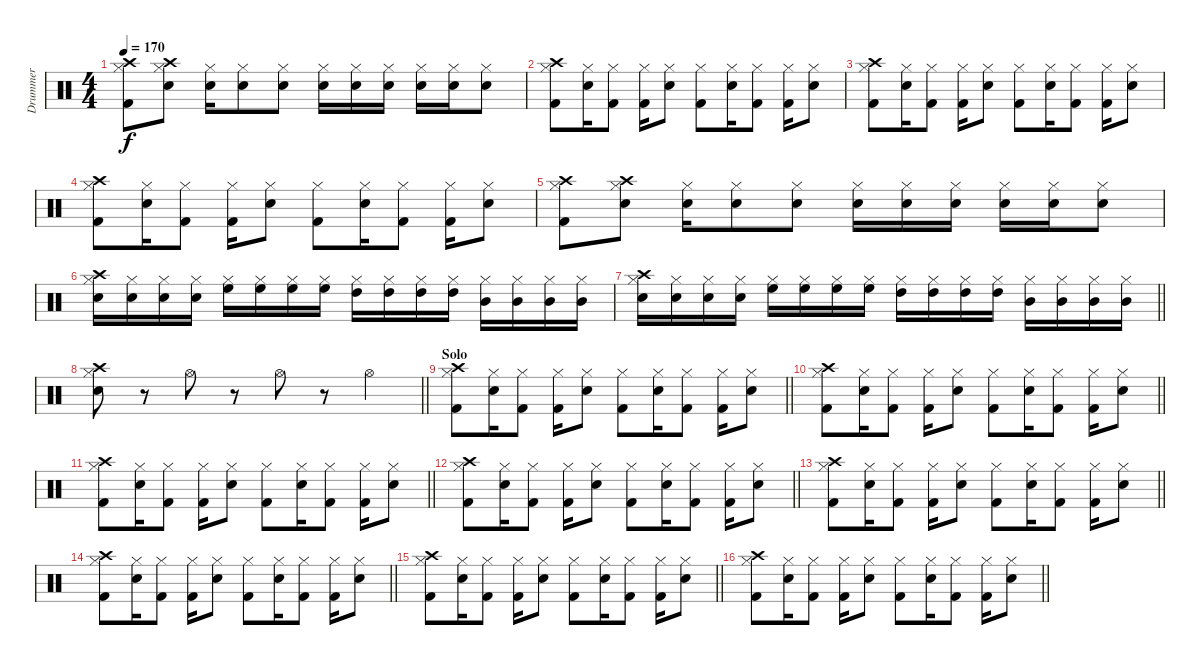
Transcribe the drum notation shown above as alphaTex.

\track ("Drummer" "Drummer") {instrument percussion}
\staff {score}
\articulation defaults
\ts (4 4)
\tempo 170
\clef neutral
\ks c
("Kick (hit) 2" "Hi-Hat (closed)" "Crash high (hit)").8{dy f} ("Electric Snare (hit)" "Hi-Hat (closed)" "Crash high (hit)").8 ("Electric Snare (hit)" "Hi-Hat (closed)").16 ("Electric Snare (hit)" "Hi-Hat (closed)").8 ("Electric Snare (hit)" "Hi-Hat (closed)").8 ("Electric Snare (hit)" "Hi-Hat (closed)").16 ("Electric Snare (hit)" "Hi-Hat (closed)").16 ("Electric Snare (hit)" "Hi-Hat (closed)").16 ("Electric Snare (hit)" "Hi-Hat (closed)").16 ("Electric Snare (hit)" "Hi-Hat (closed)").16 ("Electric Snare (hit)" "Hi-Hat (closed)").8 |
("Kick (hit) 2" "Hi-Hat (closed)" "Crash high (hit)").8 ("Electric Snare (hit)" "Hi-Hat (closed)").16 ("Kick (hit) 2" "Hi-Hat (closed)").8 ("Kick (hit) 2" "Hi-Hat (closed)").16 ("Electric Snare (hit)" "Hi-Hat (closed)").8 ("Kick (hit) 2" "Hi-Hat (closed)").8 ("Electric Snare (hit)" "Hi-Hat (closed)").16 ("Kick (hit) 2" "Hi-Hat (closed)").8 ("Kick (hit) 2" "Hi-Hat (closed)").16 ("Electric Snare (hit)" "Hi-Hat (closed)").8 |
("Kick (hit) 2" "Hi-Hat (closed)" "Crash high (hit)").8 ("Electric Snare (hit)" "Hi-Hat (closed)").16 ("Kick (hit) 2" "Hi-Hat (closed)").8 ("Kick (hit) 2" "Hi-Hat (closed)").16 ("Electric Snare (hit)" "Hi-Hat (closed)").8 ("Kick (hit) 2" "Hi-Hat (closed)").8 ("Electric Snare (hit)" "Hi-Hat (closed)").16 ("Kick (hit) 2" "Hi-Hat (closed)").8 ("Kick (hit) 2" "Hi-Hat (closed)").16 ("Electric Snare (hit)" "Hi-Hat (closed)").8 |
("Kick (hit) 2" "Hi-Hat (closed)" "Crash high (hit)").8 ("Electric Snare (hit)" "Hi-Hat (closed)").16 ("Kick (hit) 2" "Hi-Hat (closed)").8 ("Kick (hit) 2" "Hi-Hat (closed)").16 ("Electric Snare (hit)" "Hi-Hat (closed)").8 ("Kick (hit) 2" "Hi-Hat (closed)").8 ("Electric Snare (hit)" "Hi-Hat (closed)").16 ("Kick (hit) 2" "Hi-Hat (closed)").8 ("Kick (hit) 2" "Hi-Hat (closed)").16 ("Electric Snare (hit)" "Hi-Hat (closed)").8 |
("Kick (hit) 2" "Hi-Hat (closed)" "Crash high (hit)").8 ("Electric Snare (hit)" "Hi-Hat (closed)" "Crash high (hit)").8 ("Electric Snare (hit)" "Hi-Hat (closed)").16 ("Electric Snare (hit)" "Hi-Hat (closed)").8 ("Electric Snare (hit)" "Hi-Hat (closed)").8 ("Electric Snare (hit)" "Hi-Hat (closed)").16 ("Electric Snare (hit)" "Hi-Hat (closed)").16 ("Electric Snare (hit)" "Hi-Hat (closed)").16 ("Electric Snare (hit)" "Hi-Hat (closed)").16 ("Electric Snare (hit)" "Hi-Hat (closed)").16 ("Electric Snare (hit)" "Hi-Hat (closed)").8 |
("Electric Snare (hit)" "Hi-Hat (closed)" "Crash high (hit)").16 ("Electric Snare (hit)" "Hi-Hat (closed)").16 ("Snare (hit) 2" "Hi-Hat (closed)").16 ("Snare (hit) 2" "Hi-Hat (closed)").16 ("High Floor Tom (hit)" "Hi-Hat (closed)").16 ("High Floor Tom (hit)" "Hi-Hat (closed)").16 ("High Floor Tom (hit)" "Hi-Hat (closed)").16 ("High Floor Tom (hit)" "Hi-Hat (closed)").16 ("High Tom (hit)" "Hi-Hat (closed)").16 ("High Tom (hit)" "Hi-Hat (closed)").16 ("High Tom (hit)" "Hi-Hat (closed)").16 ("High Tom (hit)" "Hi-Hat (closed)").16 ("Mid Tom (hit)" "Hi-Hat (closed)").16 ("Mid Tom (hit)" "Hi-Hat (closed)").16 ("Mid Tom (hit)" "Hi-Hat (closed)").16 ("Mid Tom (hit)" "Hi-Hat (closed)").16 |
\barLineRight lightlight
("Snare (hit) 2" "Hi-Hat (closed)" "Crash high (hit)").16 ("Snare (hit) 2" "Hi-Hat (closed)").16 ("Snare (hit) 2" "Hi-Hat (closed)").16 ("Snare (hit) 2" "Hi-Hat (closed)").16 ("High Floor Tom (hit)" "Hi-Hat (closed)").16 ("High Floor Tom (hit)" "Hi-Hat (closed)").16 ("High Floor Tom (hit)" "Hi-Hat (closed)").16 ("High Floor Tom (hit)" "Hi-Hat (closed)").16 ("High Tom (hit)" "Hi-Hat (closed)").16 ("High Tom (hit)" "Hi-Hat (closed)").16 ("High Tom (hit)" "Hi-Hat (closed)").16 ("High Tom (hit)" "Hi-Hat (closed)").16 ("Mid Tom (hit)" "Hi-Hat (closed)").16 ("Mid Tom (hit)" "Hi-Hat (closed)").16 ("Mid Tom (hit)" "Hi-Hat (closed)").16 ("Mid Tom (hit)" "Hi-Hat (closed)").16 |
\barLineRight lightlight
("Hi-Hat (closed)" "Snare (hit) 2" "Crash high (hit)").8 r.8 "Hi-Hat (open)".8 r.8 "Hi-Hat (open)".8 r.8 "Hi-Hat (open)".4 |
\section ("" "Solo")
\barLineRight lightlight
("Kick (hit) 2" "Hi-Hat (closed)" "Crash high (hit)").8 ("Electric Snare (hit)" "Hi-Hat (closed)").16 ("Kick (hit) 2" "Hi-Hat (closed)").8 ("Kick (hit) 2" "Hi-Hat (closed)").16 ("Electric Snare (hit)" "Hi-Hat (closed)").8 ("Kick (hit) 2" "Hi-Hat (closed)").8 ("Electric Snare (hit)" "Hi-Hat (closed)").16 ("Kick (hit) 2" "Hi-Hat (closed)").8 ("Kick (hit) 2" "Hi-Hat (closed)").16 ("Electric Snare (hit)" "Hi-Hat (closed)").8 |
\barLineRight lightlight
("Kick (hit) 2" "Hi-Hat (closed)" "Crash high (hit)").8 ("Electric Snare (hit)" "Hi-Hat (closed)").16 ("Kick (hit) 2" "Hi-Hat (closed)").8 ("Kick (hit) 2" "Hi-Hat (closed)").16 ("Electric Snare (hit)" "Hi-Hat (closed)").8 ("Kick (hit) 2" "Hi-Hat (closed)").8 ("Electric Snare (hit)" "Hi-Hat (closed)").16 ("Kick (hit) 2" "Hi-Hat (closed)").8 ("Kick (hit) 2" "Hi-Hat (closed)").16 ("Electric Snare (hit)" "Hi-Hat (closed)").8 |
\barLineRight lightlight
("Kick (hit) 2" "Hi-Hat (closed)" "Crash high (hit)").8 ("Electric Snare (hit)" "Hi-Hat (closed)").16 ("Kick (hit) 2" "Hi-Hat (closed)").8 ("Kick (hit) 2" "Hi-Hat (closed)").16 ("Electric Snare (hit)" "Hi-Hat (closed)").8 ("Kick (hit) 2" "Hi-Hat (closed)").8 ("Electric Snare (hit)" "Hi-Hat (closed)").16 ("Kick (hit) 2" "Hi-Hat (closed)").8 ("Kick (hit) 2" "Hi-Hat (closed)").16 ("Electric Snare (hit)" "Hi-Hat (closed)").8 |
\barLineRight lightlight
("Kick (hit) 2" "Hi-Hat (closed)" "Crash high (hit)").8 ("Electric Snare (hit)" "Hi-Hat (closed)").16 ("Kick (hit) 2" "Hi-Hat (closed)").8 ("Kick (hit) 2" "Hi-Hat (closed)").16 ("Electric Snare (hit)" "Hi-Hat (closed)").8 ("Kick (hit) 2" "Hi-Hat (closed)").8 ("Electric Snare (hit)" "Hi-Hat (closed)").16 ("Kick (hit) 2" "Hi-Hat (closed)").8 ("Kick (hit) 2" "Hi-Hat (closed)").16 ("Electric Snare (hit)" "Hi-Hat (closed)").8 |
\barLineRight lightlight
("Kick (hit) 2" "Hi-Hat (closed)" "Crash high (hit)").8 ("Electric Snare (hit)" "Hi-Hat (closed)").16 ("Kick (hit) 2" "Hi-Hat (closed)").8 ("Kick (hit) 2" "Hi-Hat (closed)").16 ("Electric Snare (hit)" "Hi-Hat (closed)").8 ("Kick (hit) 2" "Hi-Hat (closed)").8 ("Electric Snare (hit)" "Hi-Hat (closed)").16 ("Kick (hit) 2" "Hi-Hat (closed)").8 ("Kick (hit) 2" "Hi-Hat (closed)").16 ("Electric Snare (hit)" "Hi-Hat (closed)").8 |
\barLineRight lightlight
("Kick (hit) 2" "Hi-Hat (closed)" "Crash high (hit)").8 ("Electric Snare (hit)" "Hi-Hat (closed)").16 ("Kick (hit) 2" "Hi-Hat (closed)").8 ("Kick (hit) 2" "Hi-Hat (closed)").16 ("Electric Snare (hit)" "Hi-Hat (closed)").8 ("Kick (hit) 2" "Hi-Hat (closed)").8 ("Electric Snare (hit)" "Hi-Hat (closed)").16 ("Kick (hit) 2" "Hi-Hat (closed)").8 ("Kick (hit) 2" "Hi-Hat (closed)").16 ("Electric Snare (hit)" "Hi-Hat (closed)").8 |
\barLineRight lightlight
("Kick (hit) 2" "Hi-Hat (closed)" "Crash high (hit)").8 ("Electric Snare (hit)" "Hi-Hat (closed)").16 ("Kick (hit) 2" "Hi-Hat (closed)").8 ("Kick (hit) 2" "Hi-Hat (closed)").16 ("Electric Snare (hit)" "Hi-Hat (closed)").8 ("Kick (hit) 2" "Hi-Hat (closed)").8 ("Electric Snare (hit)" "Hi-Hat (closed)").16 ("Kick (hit) 2" "Hi-Hat (closed)").8 ("Kick (hit) 2" "Hi-Hat (closed)").16 ("Electric Snare (hit)" "Hi-Hat (closed)").8 |
\barLineRight lightlight
("Kick (hit) 2" "Hi-Hat (closed)" "Crash high (hit)").8 ("Electric Snare (hit)" "Hi-Hat (closed)").16 ("Kick (hit) 2" "Hi-Hat (closed)").8 ("Kick (hit) 2" "Hi-Hat (closed)").16 ("Electric Snare (hit)" "Hi-Hat (closed)").8 ("Kick (hit) 2" "Hi-Hat (closed)").8 ("Electric Snare (hit)" "Hi-Hat (closed)").16 ("Kick (hit) 2" "Hi-Hat (closed)").8 ("Kick (hit) 2" "Hi-Hat (closed)").16 ("Electric Snare (hit)" "Hi-Hat (closed)").8
